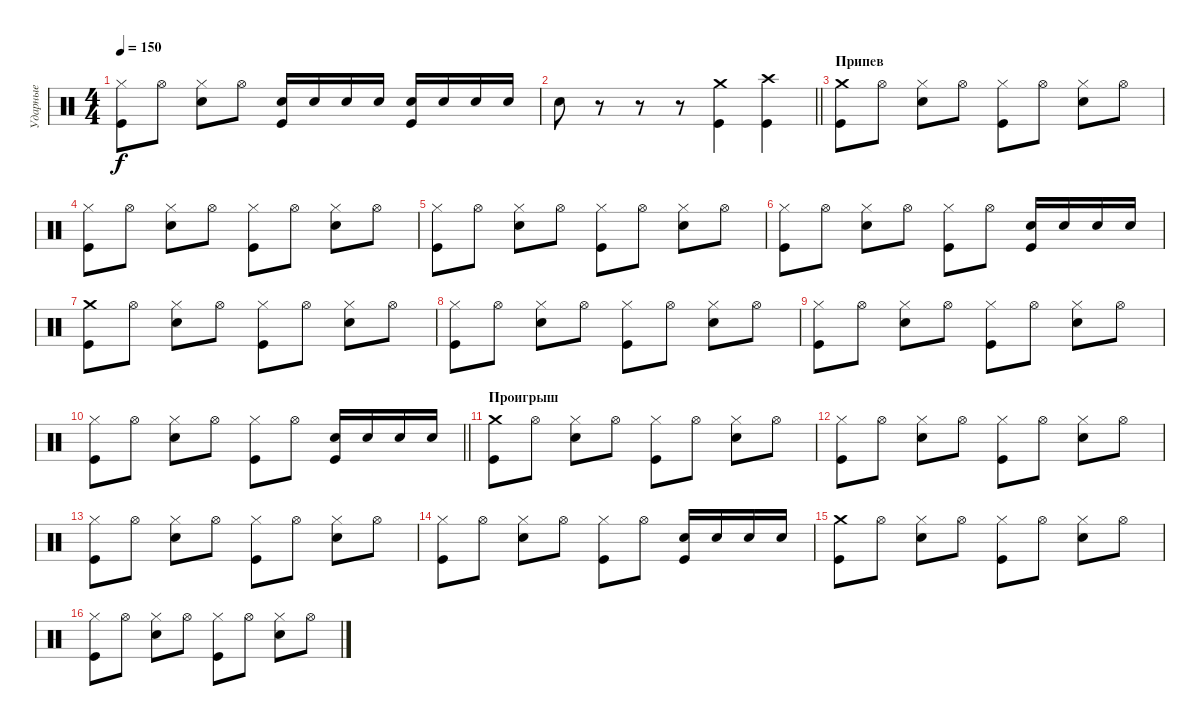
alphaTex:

\track ("Ударные" "Ударные") {instrument percussion}
\staff {score}
\articulation defaults
\ts (4 4)
\tempo 150
\clef neutral
\ks c
("Hi-Hat (closed)" "Kick (hit)").8{dy f} "Hi-Hat (open)".8 ("Hi-Hat (closed)" "Electric Snare (hit)").8 "Hi-Hat (open)".8 ("Electric Snare (hit)" "Kick (hit)").16 "Electric Snare (hit)".16 "Electric Snare (hit)".16 "Electric Snare (hit)".16 ("Electric Snare (hit)" "Kick (hit)").16 "Electric Snare (hit)".16 "Electric Snare (hit)".16 "Electric Snare (hit)".16 |
\barLineRight lightlight "Electric Snare (hit)".8
r.8 r.8 r.8 ("Crash medium (hit)" "Kick (hit)").4 ("Crash high (hit)" "Kick (hit)").4 |
\section ("" "Припев")
("Crash medium (hit)" "Kick (hit)").8 "Hi-Hat (open)".8 ("Hi-Hat (closed)" "Electric Snare (hit)").8 "Hi-Hat (open)".8 ("Hi-Hat (closed)" "Kick (hit)").8 "Hi-Hat (open)".8 ("Hi-Hat (closed)" "Electric Snare (hit)").8 "Hi-Hat (open)".8 |
("Hi-Hat (closed)" "Kick (hit)").8 "Hi-Hat (open)".8 ("Hi-Hat (closed)" "Electric Snare (hit)").8 "Hi-Hat (open)".8 ("Hi-Hat (closed)" "Kick (hit)").8 "Hi-Hat (open)".8 ("Hi-Hat (closed)" "Electric Snare (hit)").8 "Hi-Hat (open)".8 |
("Hi-Hat (closed)" "Kick (hit)").8 "Hi-Hat (open)".8 ("Hi-Hat (closed)" "Electric Snare (hit)").8 "Hi-Hat (open)".8 ("Hi-Hat (closed)" "Kick (hit)").8 "Hi-Hat (open)".8 ("Hi-Hat (closed)" "Electric Snare (hit)").8 "Hi-Hat (open)".8 |
("Hi-Hat (closed)" "Kick (hit)").8 "Hi-Hat (open)".8 ("Hi-Hat (closed)" "Electric Snare (hit)").8 "Hi-Hat (open)".8 ("Hi-Hat (closed)" "Kick (hit)").8 "Hi-Hat (open)".8 ("Electric Snare (hit)" "Kick (hit)").16 "Electric Snare (hit)".16 "Electric Snare (hit)".16 "Electric Snare (hit)".16 |
("Crash medium (hit)" "Kick (hit)").8 "Hi-Hat (open)".8 ("Hi-Hat (closed)" "Electric Snare (hit)").8 "Hi-Hat (open)".8 ("Hi-Hat (closed)" "Kick (hit)").8 "Hi-Hat (open)".8 ("Hi-Hat (closed)" "Electric Snare (hit)").8 "Hi-Hat (open)".8 |
("Hi-Hat (closed)" "Kick (hit)").8 "Hi-Hat (open)".8 ("Hi-Hat (closed)" "Electric Snare (hit)").8 "Hi-Hat (open)".8 ("Hi-Hat (closed)" "Kick (hit)").8 "Hi-Hat (open)".8 ("Hi-Hat (closed)" "Electric Snare (hit)").8 "Hi-Hat (open)".8 |
("Hi-Hat (closed)" "Kick (hit)").8 "Hi-Hat (open)".8 ("Hi-Hat (closed)" "Electric Snare (hit)").8 "Hi-Hat (open)".8 ("Hi-Hat (closed)" "Kick (hit)").8 "Hi-Hat (open)".8 ("Hi-Hat (closed)" "Electric Snare (hit)").8 "Hi-Hat (open)".8 |
\barLineRight lightlight
("Hi-Hat (closed)" "Kick (hit)").8 "Hi-Hat (open)".8 ("Hi-Hat (closed)" "Electric Snare (hit)").8 "Hi-Hat (open)".8 ("Hi-Hat (closed)" "Kick (hit)").8 "Hi-Hat (open)".8 ("Electric Snare (hit)" "Kick (hit)").16 "Electric Snare (hit)".16 "Electric Snare (hit)".16 "Electric Snare (hit)".16 |
\section ("" "Проигрыш")
("Crash medium (hit)" "Kick (hit)").8 "Hi-Hat (open)".8 ("Hi-Hat (closed)" "Electric Snare (hit)").8 "Hi-Hat (open)".8 ("Hi-Hat (closed)" "Kick (hit)").8 "Hi-Hat (open)".8 ("Hi-Hat (closed)" "Electric Snare (hit)").8 "Hi-Hat (open)".8 |
("Hi-Hat (closed)" "Kick (hit)").8 "Hi-Hat (open)".8 ("Hi-Hat (closed)" "Electric Snare (hit)").8 "Hi-Hat (open)".8 ("Hi-Hat (closed)" "Kick (hit)").8 "Hi-Hat (open)".8 ("Hi-Hat (closed)" "Electric Snare (hit)").8 "Hi-Hat (open)".8 |
("Hi-Hat (closed)" "Kick (hit)").8 "Hi-Hat (open)".8 ("Hi-Hat (closed)" "Electric Snare (hit)").8 "Hi-Hat (open)".8 ("Hi-Hat (closed)" "Kick (hit)").8 "Hi-Hat (open)".8 ("Hi-Hat (closed)" "Electric Snare (hit)").8 "Hi-Hat (open)".8 |
("Hi-Hat (closed)" "Kick (hit)").8 "Hi-Hat (open)".8 ("Hi-Hat (closed)" "Electric Snare (hit)").8 "Hi-Hat (open)".8 ("Hi-Hat (closed)" "Kick (hit)").8 "Hi-Hat (open)".8 ("Electric Snare (hit)" "Kick (hit)").16 "Electric Snare (hit)".16 "Electric Snare (hit)".16 "Electric Snare (hit)".16 |
("Crash medium (hit)" "Kick (hit)").8 "Hi-Hat (open)".8 ("Hi-Hat (closed)" "Electric Snare (hit)").8 "Hi-Hat (open)".8 ("Hi-Hat (closed)" "Kick (hit)").8 "Hi-Hat (open)".8 ("Hi-Hat (closed)" "Electric Snare (hit)").8 "Hi-Hat (open)".8 |
("Hi-Hat (closed)" "Kick (hit)").8 "Hi-Hat (open)".8 ("Hi-Hat (closed)" "Electric Snare (hit)").8 "Hi-Hat (open)".8 ("Hi-Hat (closed)" "Kick (hit)").8 "Hi-Hat (open)".8 ("Hi-Hat (closed)" "Electric Snare (hit)").8 "Hi-Hat (open)".8
